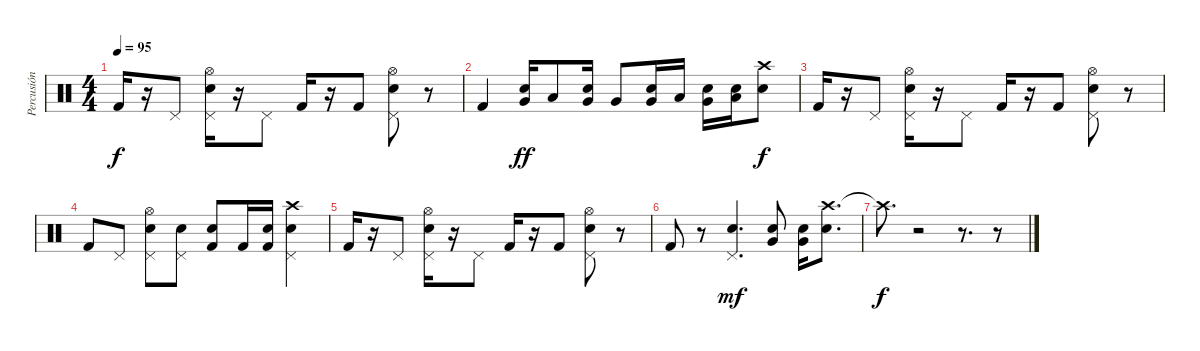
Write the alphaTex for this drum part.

\track ("Percusión" "Percusión") {instrument percussion}
\staff {score}
\articulation defaults
\ts (4 4)
\tempo 95
\clef neutral
\ks c "Kick (hit) 2".16{dy f}
r.16 "Pedal Hi-Hat (hit)".8 ("Snare (hit) 2" "Pedal Hi-Hat (hit)" "Hi-Hat (open)").16 r.16 "Pedal Hi-Hat (hit)".8 "Kick (hit) 2".16 r.16 "Kick (hit) 2".8 ("Snare (hit) 2" "Pedal Hi-Hat (hit)" "Hi-Hat (open)").8 r.8 |
"Kick (hit) 2".4 ("Very Low Tom (hit)" "Snare (hit) 2").16{dy ff} "Low Tom (hit)".8 ("Very Low Tom (hit)" "Snare (hit) 2").16 "Very Low Tom (hit)".8 ("Very Low Tom (hit)" "Snare (hit) 2").16 "Low Tom (hit)".16 ("Very Low Tom (hit)" "Snare (hit) 2").16 ("Snare (hit) 2" "Low Floor Tom (hit)").16 ("Crash high (hit)" "Snare (hit) 2").8{dy f} |
"Kick (hit) 2".16 r.16 "Pedal Hi-Hat (hit)".8 ("Snare (hit) 2" "Pedal Hi-Hat (hit)" "Hi-Hat (open)").16 r.16 "Pedal Hi-Hat (hit)".8 "Kick (hit) 2".16 r.16 "Kick (hit) 2".8 ("Snare (hit) 2" "Pedal Hi-Hat (hit)" "Hi-Hat (open)").8 r.8 |
"Kick (hit) 2".8 "Pedal Hi-Hat (hit)".8 ("Snare (hit) 2" "Pedal Hi-Hat (hit)" "Hi-Hat (open)").8 ("Pedal Hi-Hat (hit)" "Snare (hit) 2").8 ("Kick (hit) 2" "Snare (hit) 2").8 "Kick (hit) 2".16 ("Kick (hit) 2" "Snare (hit) 2").16 ("Snare (hit) 2" "Pedal Hi-Hat (hit)" "Crash high (hit)").4 |
"Kick (hit) 2".16 r.16 "Pedal Hi-Hat (hit)".8 ("Snare (hit) 2" "Pedal Hi-Hat (hit)" "Hi-Hat (open)").16 r.16 "Pedal Hi-Hat (hit)".8 "Kick (hit) 2".16 r.16 "Kick (hit) 2".8 ("Snare (hit) 2" "Pedal Hi-Hat (hit)" "Hi-Hat (open)").8 r.8 |
"Kick (hit) 2".8 r.8 ("Snare (hit) 2" "Pedal Hi-Hat (hit)").4{d dy mf} ("Very Low Tom (hit)" "Snare (hit) 2").8 ("Very Low Tom (hit)" "Snare (hit) 2").16 ("Crash high (hit)" "Snare (hit) 2").8{d} |
"Crash high (hit)"{t}.8{d dy f} r.2 r.8{d} r.8
